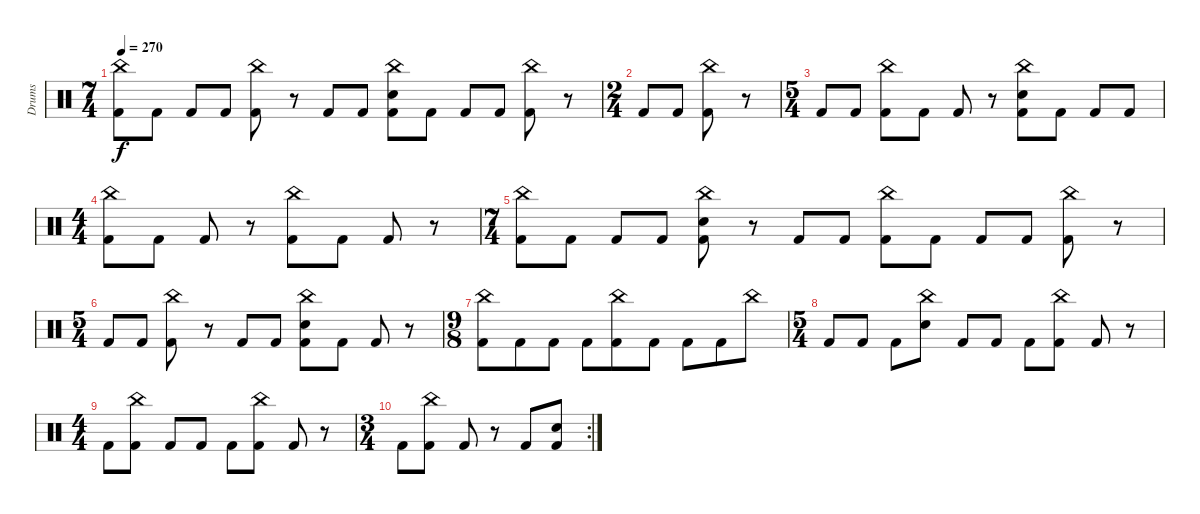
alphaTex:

\track ("Drums" "Drums") {instrument percussion}
\staff {score}
\articulation defaults
\ts (7 4)
\tempo 270
\clef neutral
\ks c
("China (hit)" "Kick (hit) 2").8{dy f} "Kick (hit) 2".8 "Kick (hit) 2".8 "Kick (hit) 2".8 ("China (hit)" "Kick (hit) 2").8 r.8 "Kick (hit) 2".8 "Kick (hit) 2".8 ("China (hit)" "Electric Snare (hit)" "Kick (hit) 2").8 "Kick (hit) 2".8 "Kick (hit) 2".8 "Kick (hit) 2".8 ("China (hit)" "Kick (hit) 2").8 r.8 |
\ts (2 4)
"Kick (hit) 2".8 "Kick (hit) 2".8 ("China (hit)" "Kick (hit) 2").8 r.8 |
\ts (5 4)
"Kick (hit) 2".8 "Kick (hit) 2".8 ("China (hit)" "Kick (hit) 2").8 "Kick (hit) 2".8 "Kick (hit) 2".8 r.8 ("China (hit)" "Electric Snare (hit)" "Kick (hit) 2").8 "Kick (hit) 2".8 "Kick (hit) 2".8 "Kick (hit) 2".8 |
\ts (4 4)
("China (hit)" "Kick (hit) 2").8 "Kick (hit) 2".8 "Kick (hit) 2".8 r.8 ("China (hit)" "Kick (hit) 2").8 "Kick (hit) 2".8 "Kick (hit) 2".8 r.8 |
\ts (7 4)
("China (hit)" "Kick (hit) 2").8 "Kick (hit) 2".8 "Kick (hit) 2".8 "Kick (hit) 2".8 ("China (hit)" "Electric Snare (hit)" "Kick (hit) 2").8 r.8 "Kick (hit) 2".8 "Kick (hit) 2".8 ("China (hit)" "Kick (hit) 2").8 "Kick (hit) 2".8 "Kick (hit) 2".8 "Kick (hit) 2".8 ("China (hit)" "Kick (hit) 2").8 r.8 |
\ts (5 4)
"Kick (hit) 2".8 "Kick (hit) 2".8 ("China (hit)" "Kick (hit) 2").8 r.8 "Kick (hit) 2".8 "Kick (hit) 2".8 ("China (hit)" "Electric Snare (hit)" "Kick (hit) 2").8 "Kick (hit) 2".8 "Kick (hit) 2".8 r.8 |
\ts (9 8)
("China (hit)" "Kick (hit) 2").8 "Kick (hit) 2".8 "Kick (hit) 2".8 "Kick (hit) 2".8 ("China (hit)" "Kick (hit) 2").8 "Kick (hit) 2".8 "Kick (hit) 2".8 "Kick (hit) 2".8 "China (hit)".8 |
\ts (5 4)
"Kick (hit) 2".8 "Kick (hit) 2".8 "Kick (hit) 2".8 ("China (hit)" "Electric Snare (hit)").8 "Kick (hit) 2".8 "Kick (hit) 2".8 "Kick (hit) 2".8 ("China (hit)" "Kick (hit) 2").8 "Kick (hit) 2".8 r.8 |
\ts (4 4)
"Kick (hit) 2".8 ("China (hit)" "Kick (hit) 2").8 "Kick (hit) 2".8 "Kick (hit) 2".8 "Kick (hit) 2".8 ("China (hit)" "Kick (hit) 2").8 "Kick (hit) 2".8 r.8 |
\rc 2
\ts (3 4)
"Kick (hit) 2".8 ("China (hit)" "Kick (hit) 2").8 "Kick (hit) 2".8 r.8 "Kick (hit) 2".8 ("Electric Snare (hit)" "Kick (hit) 2").8
